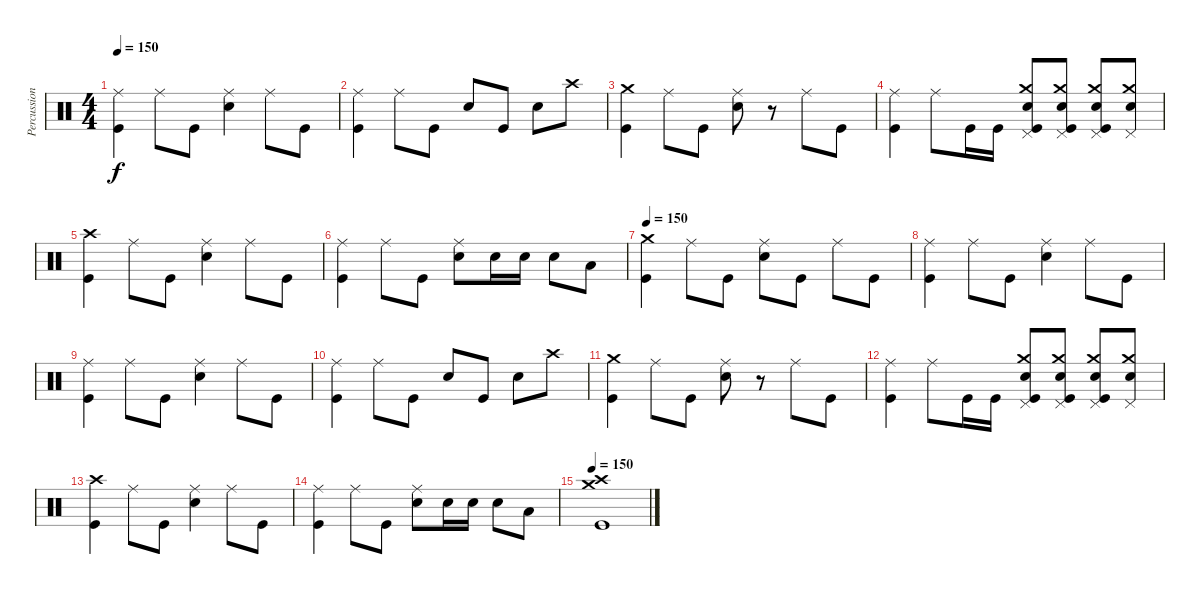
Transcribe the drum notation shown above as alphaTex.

\track ("Percussion" "Percussion") {instrument percussion}
\staff {score}
\articulation defaults
\ts (4 4)
\tempo 150
\clef neutral
\ks c
("Ride (middle)" "Kick (hit)").4{dy f} "Ride (middle)".8 "Kick (hit)".8 ("Ride (middle)" "Snare (hit) 2").4 "Ride (middle)".8 "Kick (hit)".8 |
("Ride (middle)" "Kick (hit)").4 "Ride (middle)".8 "Kick (hit)".8 "Snare (hit) 2".8 "Kick (hit)".8 "Snare (hit) 2".8 "Crash high (hit)".8 |
("Crash medium (hit)" "Kick (hit)").4 "Ride (middle)".8 "Kick (hit)".8 ("Ride (middle)" "Snare (hit) 2").8 r.8 "Ride (middle)".8 "Kick (hit)".8 |
("Ride (middle)" "Kick (hit)").4 "Ride (middle)".8 "Kick (hit)".16 "Kick (hit)".16 ("Crash medium (hit)" "Pedal Hi-Hat (hit)" "Snare (hit) 2" "Kick (hit)").8 ("Crash medium (hit)" "Pedal Hi-Hat (hit)" "Snare (hit) 2" "Kick (hit)").8 ("Crash medium (hit)" "Pedal Hi-Hat (hit)" "Snare (hit) 2" "Kick (hit)").8 ("Crash medium (hit)" "Pedal Hi-Hat (hit)" "Snare (hit) 2").8 |
("Crash high (hit)" "Kick (hit)").4 "Ride (middle)".8 "Kick (hit)".8 ("Ride (middle)" "Snare (hit) 2").4 "Ride (middle)".8 "Kick (hit)".8 |
("Ride (middle)" "Kick (hit)").4 "Ride (middle)".8 "Kick (hit)".8 ("Ride (middle)" "Snare (hit) 2").8 "Snare (hit) 2".16 "Snare (hit) 2".16 "Snare (hit) 2".8 "Low Tom (hit)".8 |
\tempo 150
("Crash medium (hit)" "Kick (hit)").4 "Ride (middle)".8 "Kick (hit)".8 ("Ride (middle)" "Snare (hit) 2").8 "Kick (hit)".8 "Ride (middle)".8 "Kick (hit)".8 |
("Ride (middle)" "Kick (hit)").4 "Ride (middle)".8 "Kick (hit)".8 ("Ride (middle)" "Snare (hit) 2").4 "Ride (middle)".8 "Kick (hit)".8 |
("Ride (middle)" "Kick (hit)").4 "Ride (middle)".8 "Kick (hit)".8 ("Ride (middle)" "Snare (hit) 2").4 "Ride (middle)".8 "Kick (hit)".8 |
("Ride (middle)" "Kick (hit)").4 "Ride (middle)".8 "Kick (hit)".8 "Snare (hit) 2".8 "Kick (hit)".8 "Snare (hit) 2".8 "Crash high (hit)".8 |
("Crash medium (hit)" "Kick (hit)").4 "Ride (middle)".8 "Kick (hit)".8 ("Ride (middle)" "Snare (hit) 2").8 r.8 "Ride (middle)".8 "Kick (hit)".8 |
("Ride (middle)" "Kick (hit)").4 "Ride (middle)".8 "Kick (hit)".16 "Kick (hit)".16 ("Crash medium (hit)" "Pedal Hi-Hat (hit)" "Snare (hit) 2" "Kick (hit)").8 ("Crash medium (hit)" "Pedal Hi-Hat (hit)" "Snare (hit) 2" "Kick (hit)").8 ("Crash medium (hit)" "Pedal Hi-Hat (hit)" "Snare (hit) 2" "Kick (hit)").8 ("Crash medium (hit)" "Pedal Hi-Hat (hit)" "Snare (hit) 2").8 |
("Crash high (hit)" "Kick (hit)").4 "Ride (middle)".8 "Kick (hit)".8 ("Ride (middle)" "Snare (hit) 2").4 "Ride (middle)".8 "Kick (hit)".8 |
("Ride (middle)" "Kick (hit)").4 "Ride (middle)".8 "Kick (hit)".8 ("Ride (middle)" "Snare (hit) 2").8 "Snare (hit) 2".16 "Snare (hit) 2".16 "Snare (hit) 2".8 "Low Tom (hit)".8 |
\tempo 150
("Crash high (hit)" "Crash medium (hit)" "Kick (hit)").1
